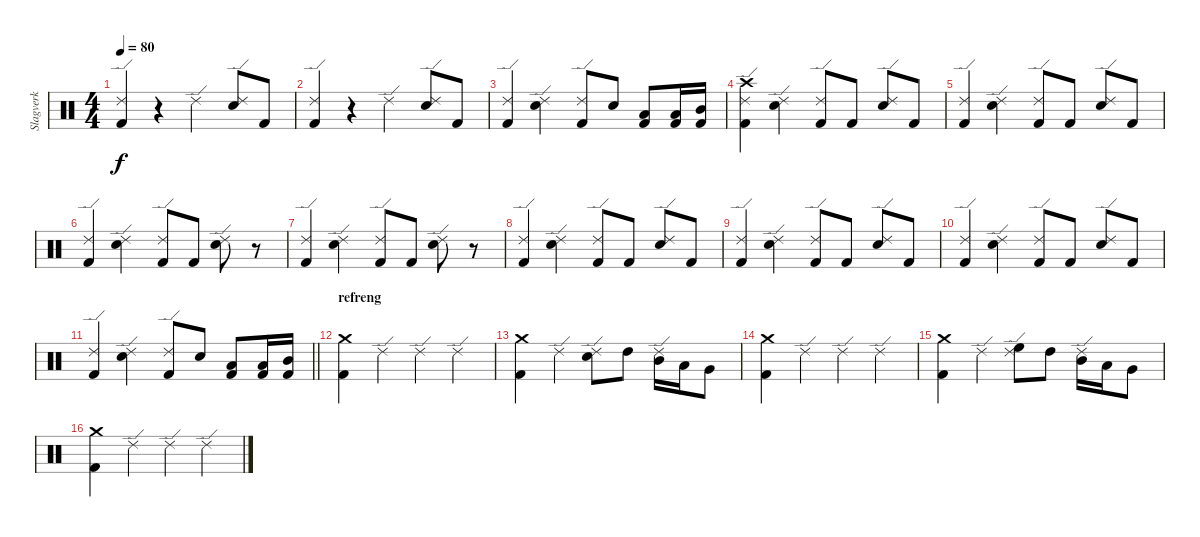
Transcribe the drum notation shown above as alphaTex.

\track ("Slagverk" "Slagverk") {instrument percussion}
\staff {score}
\articulation defaults
\ts (4 4)
\tempo 80
\clef neutral
\ks c
("Ride (edge) 2" "Kick (hit) 2").4{dy f} r.4 "Ride (edge) 2".4 ("Electric Snare (hit)" "Ride (edge) 2").8 "Kick (hit) 2".8 |
("Ride (edge) 2" "Kick (hit) 2").4 r.4 "Ride (edge) 2".4 ("Electric Snare (hit)" "Ride (edge) 2").8 "Kick (hit) 2".8 |
("Ride (edge) 2" "Kick (hit) 2").4 ("Electric Snare (hit)" "Ride (edge) 2").4 ("Ride (edge) 2" "Kick (hit) 2").8 "Electric Snare (hit)".8 ("Low Tom (hit)" "Kick (hit) 2").8 ("Low Tom (hit)" "Kick (hit) 2").16 ("Mid Tom (hit)" "Kick (hit) 2").16 |
("Ride (edge) 2" "Kick (hit) 2" "Crash high (hit)").4 ("Electric Snare (hit)" "Ride (edge) 2").4 ("Ride (edge) 2" "Kick (hit) 2").8 "Kick (hit) 2".8 ("Electric Snare (hit)" "Ride (edge) 2").8 "Kick (hit) 2".8 |
("Ride (edge) 2" "Kick (hit) 2").4 ("Electric Snare (hit)" "Ride (edge) 2").4 ("Ride (edge) 2" "Kick (hit) 2").8 "Kick (hit) 2".8 ("Electric Snare (hit)" "Ride (edge) 2").8 "Kick (hit) 2".8 |
("Ride (edge) 2" "Kick (hit) 2").4 ("Electric Snare (hit)" "Ride (edge) 2").4 ("Ride (edge) 2" "Kick (hit) 2").8 "Kick (hit) 2".8 ("Electric Snare (hit)" "Ride (edge) 2").8 r.8 |
("Ride (edge) 2" "Kick (hit) 2").4 ("Electric Snare (hit)" "Ride (edge) 2").4 ("Ride (edge) 2" "Kick (hit) 2").8 "Kick (hit) 2".8 ("Electric Snare (hit)" "Ride (edge) 2").8 r.8 |
("Ride (edge) 2" "Kick (hit) 2").4 ("Electric Snare (hit)" "Ride (edge) 2").4 ("Ride (edge) 2" "Kick (hit) 2").8 "Kick (hit) 2".8 ("Electric Snare (hit)" "Ride (edge) 2").8 "Kick (hit) 2".8 |
("Ride (edge) 2" "Kick (hit) 2").4 ("Electric Snare (hit)" "Ride (edge) 2").4 ("Ride (edge) 2" "Kick (hit) 2").8 "Kick (hit) 2".8 ("Electric Snare (hit)" "Ride (edge) 2").8 "Kick (hit) 2".8 |
("Ride (edge) 2" "Kick (hit) 2").4 ("Electric Snare (hit)" "Ride (edge) 2").4 ("Ride (edge) 2" "Kick (hit) 2").8 "Kick (hit) 2".8 ("Electric Snare (hit)" "Ride (edge) 2").8 "Kick (hit) 2".8 |
\barLineRight lightlight
("Ride (edge) 2" "Kick (hit) 2").4 ("Electric Snare (hit)" "Ride (edge) 2").4 ("Ride (edge) 2" "Kick (hit) 2").8 "Electric Snare (hit)".8 ("Low Tom (hit)" "Kick (hit) 2").8 ("Low Tom (hit)" "Kick (hit) 2").16 ("Mid Tom (hit)" "Kick (hit) 2").16 |
\section ("" "refreng")
("Crash medium (hit)" "Kick (hit) 2").4 "Ride (edge) 2".4 "Ride (edge) 2".4 "Ride (edge) 2".4 |
("Crash medium (hit)" "Kick (hit) 2").4 "Ride (edge) 2".4 ("Ride (edge) 2" "Electric Snare (hit)").8 "High Tom (hit)".8 ("Ride (edge) 2" "Mid Tom (hit)").16 "Low Tom (hit)".16 "Very Low Tom (hit)".8 |
("Crash medium (hit)" "Kick (hit) 2").4 "Ride (edge) 2".4 "Ride (edge) 2".4 "Ride (edge) 2".4 |
("Crash medium (hit)" "Kick (hit) 2").4 "Ride (edge) 2".4 ("Ride (edge) 2" "High Floor Tom (hit)").8 "High Tom (hit)".8 ("Ride (edge) 2" "Mid Tom (hit)").16 "Low Tom (hit)".16 "Very Low Tom (hit)".8 |
("Crash medium (hit)" "Kick (hit) 2").4 "Ride (edge) 2".4 "Ride (edge) 2".4 "Ride (edge) 2".4
